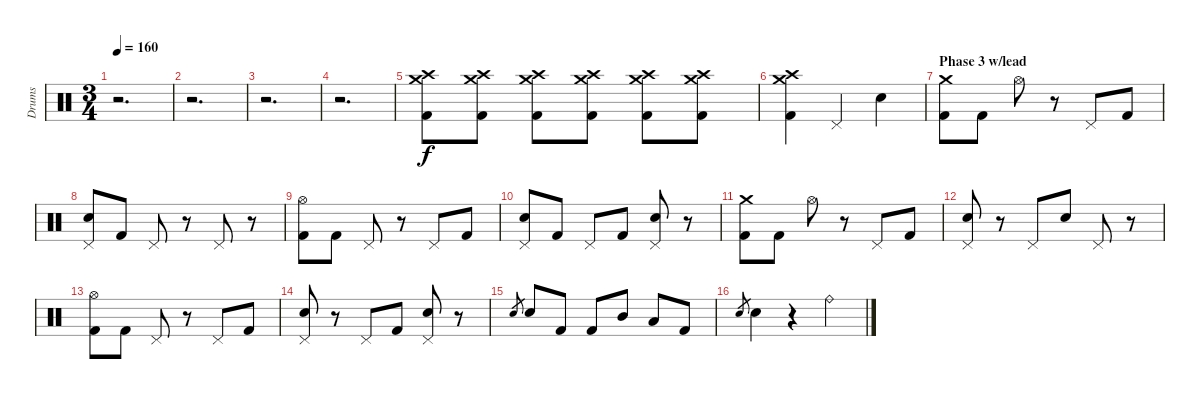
\track ("Drums" "Drums") {instrument percussion}
\staff {score}
\articulation defaults
\ts (3 4)
\tempo 160
\clef neutral
\ks c
r.2{d dy f} |
r.2{d} |
r.2{d} |
r.2{d} |
("Crash high (hit)" "Crash medium (hit)" "Kick (hit) 2").8 ("Crash high (hit)" "Crash medium (hit)" "Kick (hit) 2").8 ("Crash high (hit)" "Crash medium (hit)" "Kick (hit) 2").8 ("Crash high (hit)" "Crash medium (hit)" "Kick (hit) 2").8 ("Crash high (hit)" "Crash medium (hit)" "Kick (hit) 2").8 ("Crash high (hit)" "Crash medium (hit)" "Kick (hit) 2").8 |
("Crash high (hit)" "Crash medium (hit)" "Kick (hit) 2").4 "Pedal Hi-Hat (hit)".4 "Snare (hit) 2".4 |
\section ("" "Phase 3 w/lead")
("Crash medium (hit)" "Kick (hit) 2").8 "Kick (hit) 2".8 "Hi-Hat (open)".8 r.8 "Pedal Hi-Hat (hit)".8 "Kick (hit) 2".8 |
("Pedal Hi-Hat (hit)" "Snare (hit) 2").8 "Kick (hit) 2".8 "Pedal Hi-Hat (hit)".8 r.8 "Pedal Hi-Hat (hit)".8 r.8 |
("Hi-Hat (open)" "Kick (hit) 2").8 "Kick (hit) 2".8 "Pedal Hi-Hat (hit)".8 r.8 "Pedal Hi-Hat (hit)".8 "Kick (hit) 2".8 |
("Pedal Hi-Hat (hit)" "Snare (hit) 2").8 "Kick (hit) 2".8 "Pedal Hi-Hat (hit)".8 "Kick (hit) 2".8 ("Pedal Hi-Hat (hit)" "Snare (hit) 2").8 r.8 |
("Crash medium (hit)" "Kick (hit) 2").8 "Kick (hit) 2".8 "Hi-Hat (open)".8 r.8 "Pedal Hi-Hat (hit)".8 "Kick (hit) 2".8 |
("Pedal Hi-Hat (hit)" "Snare (hit) 2").8 r.8 "Pedal Hi-Hat (hit)".8 "Snare (hit) 2".8 "Pedal Hi-Hat (hit)".8 r.8 |
("Hi-Hat (open)" "Kick (hit) 2").8 "Kick (hit) 2".8 "Pedal Hi-Hat (hit)".8 r.8 "Pedal Hi-Hat (hit)".8 "Kick (hit) 2".8 |
("Pedal Hi-Hat (hit)" "Snare (hit) 2").8 r.8 "Pedal Hi-Hat (hit)".8 "Kick (hit) 2".8 ("Pedal Hi-Hat (hit)" "Snare (hit) 2").8 r.8 |
"Snare (hit) 2".8{gr} "Snare (hit) 2".8 "Kick (hit) 2".8 "Kick (hit) 2".8 "Mid Tom (hit)".8 "Low Tom (hit)".8 "Kick (hit) 2".8 |
"Snare (hit) 2".8{gr} "Snare (hit) 2".4 r.4 "Ride (bell)".4
